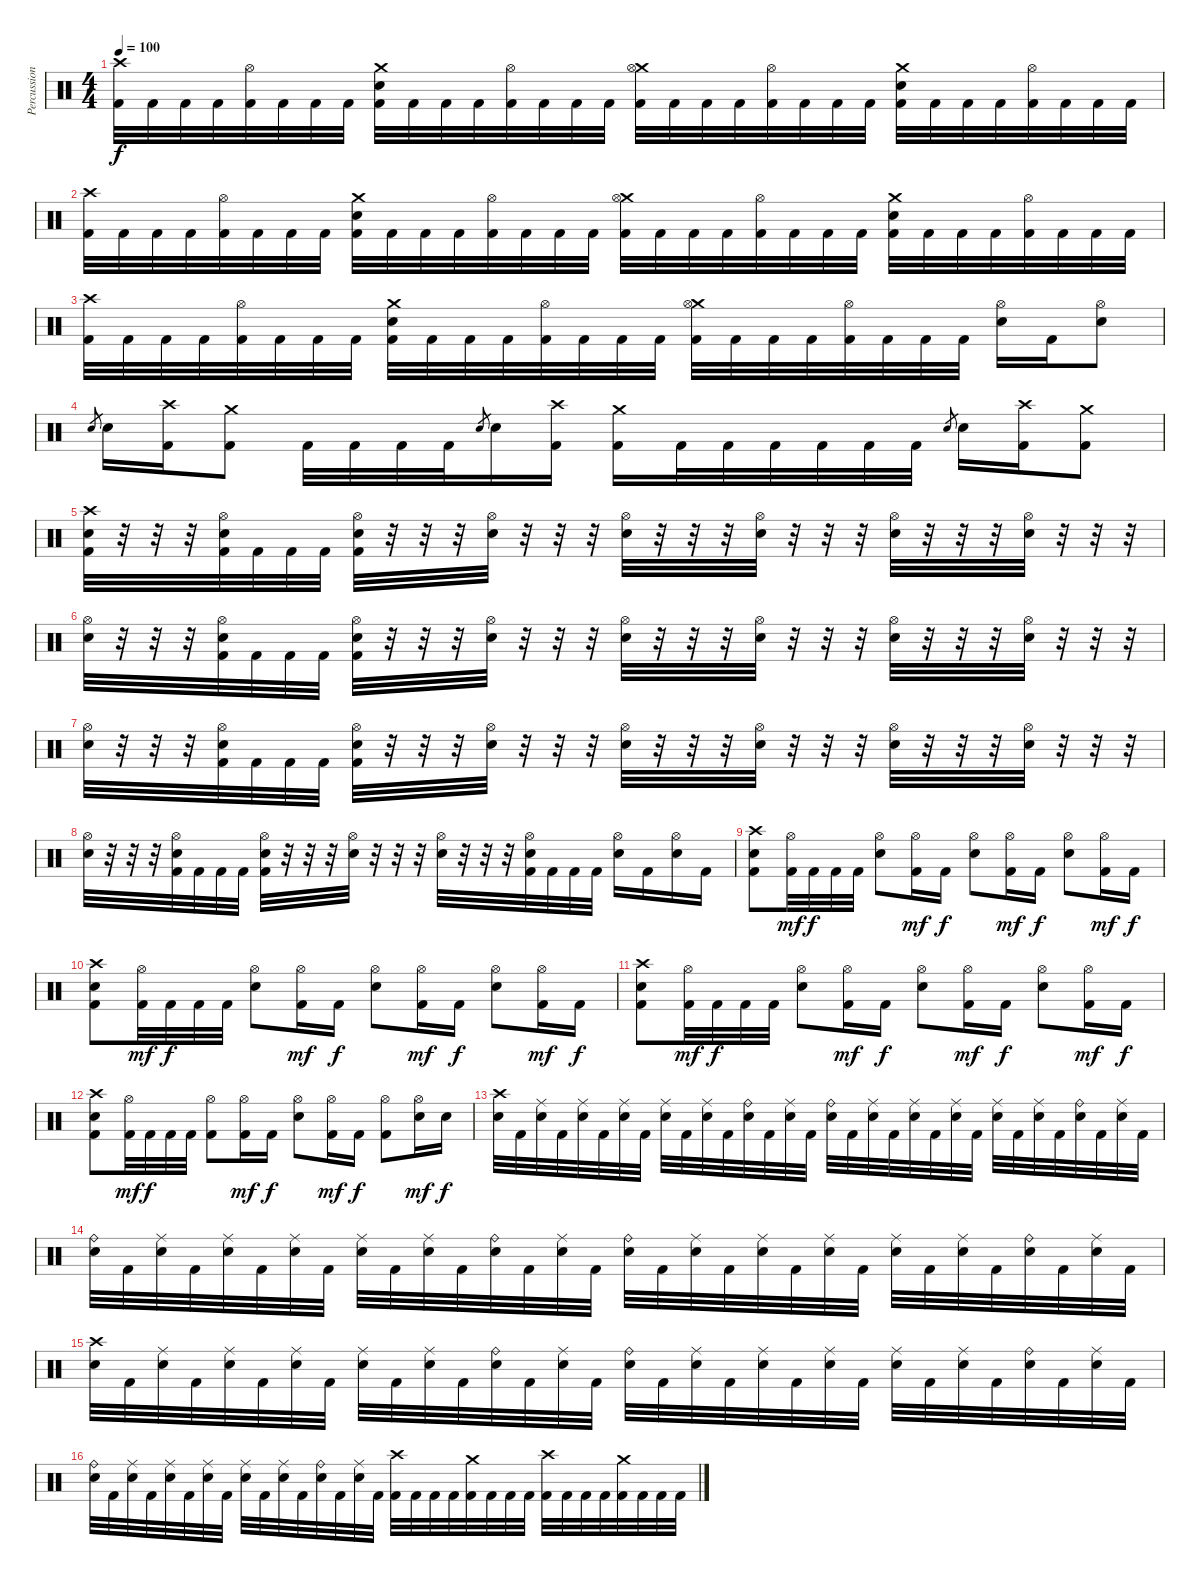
\track ("Percussion" "Percussion") {instrument percussion}
\staff {score}
\articulation defaults
\ts (4 4)
\tempo 100
\clef neutral
\ks c
("Crash high (hit)" "Kick (hit) 2").32{dy f} "Kick (hit) 2".32 "Kick (hit) 2".32 "Kick (hit) 2".32 ("Hi-Hat (open)" "Kick (hit) 2").32 "Kick (hit) 2".32 "Kick (hit) 2".32 "Kick (hit) 2".32 ("Crash medium (hit)" "Snare (hit) 2" "Kick (hit) 2").32 "Kick (hit) 2".32 "Kick (hit) 2".32 "Kick (hit) 2".32 ("Hi-Hat (open)" "Kick (hit) 2").32 "Kick (hit) 2".32 "Kick (hit) 2".32 "Kick (hit) 2".32 ("Crash medium (hit)" "Hi-Hat (open)" "Kick (hit) 2").32 "Kick (hit) 2".32 "Kick (hit) 2".32 "Kick (hit) 2".32 ("Hi-Hat (open)" "Kick (hit) 2").32 "Kick (hit) 2".32 "Kick (hit) 2".32 "Kick (hit) 2".32 ("Crash medium (hit)" "Snare (hit) 2" "Kick (hit) 2").32 "Kick (hit) 2".32 "Kick (hit) 2".32 "Kick (hit) 2".32 ("Hi-Hat (open)" "Kick (hit) 2").32 "Kick (hit) 2".32 "Kick (hit) 2".32 "Kick (hit) 2".32 |
("Crash high (hit)" "Kick (hit) 2").32 "Kick (hit) 2".32 "Kick (hit) 2".32 "Kick (hit) 2".32 ("Hi-Hat (open)" "Kick (hit) 2").32 "Kick (hit) 2".32 "Kick (hit) 2".32 "Kick (hit) 2".32 ("Crash medium (hit)" "Snare (hit) 2" "Kick (hit) 2").32 "Kick (hit) 2".32 "Kick (hit) 2".32 "Kick (hit) 2".32 ("Hi-Hat (open)" "Kick (hit) 2").32 "Kick (hit) 2".32 "Kick (hit) 2".32 "Kick (hit) 2".32 ("Crash medium (hit)" "Hi-Hat (open)" "Kick (hit) 2").32 "Kick (hit) 2".32 "Kick (hit) 2".32 "Kick (hit) 2".32 ("Hi-Hat (open)" "Kick (hit) 2").32 "Kick (hit) 2".32 "Kick (hit) 2".32 "Kick (hit) 2".32 ("Crash medium (hit)" "Snare (hit) 2" "Kick (hit) 2").32 "Kick (hit) 2".32 "Kick (hit) 2".32 "Kick (hit) 2".32 ("Hi-Hat (open)" "Kick (hit) 2").32 "Kick (hit) 2".32 "Kick (hit) 2".32 "Kick (hit) 2".32 |
("Crash high (hit)" "Kick (hit) 2").32 "Kick (hit) 2".32 "Kick (hit) 2".32 "Kick (hit) 2".32 ("Hi-Hat (open)" "Kick (hit) 2").32 "Kick (hit) 2".32 "Kick (hit) 2".32 "Kick (hit) 2".32 ("Crash medium (hit)" "Snare (hit) 2" "Kick (hit) 2").32 "Kick (hit) 2".32 "Kick (hit) 2".32 "Kick (hit) 2".32 ("Hi-Hat (open)" "Kick (hit) 2").32 "Kick (hit) 2".32 "Kick (hit) 2".32 "Kick (hit) 2".32 ("Crash medium (hit)" "Hi-Hat (open)" "Kick (hit) 2").32 "Kick (hit) 2".32 "Kick (hit) 2".32 "Kick (hit) 2".32 ("Hi-Hat (open)" "Kick (hit) 2").32 "Kick (hit) 2".32 "Kick (hit) 2".32 "Kick (hit) 2".32 ("Hi-Hat (open)" "Snare (hit) 2").16 "Kick (hit) 2".16 ("Hi-Hat (open)" "Snare (hit) 2").8 |
"Snare (hit) 2".8{gr} "Snare (hit) 2".16 ("Crash high (hit)" "Kick (hit) 2").16 ("Crash medium (hit)" "Kick (hit) 2").8 "Kick (hit) 2".32 "Kick (hit) 2".32 "Kick (hit) 2".32 "Kick (hit) 2".32 "Snare (hit) 2".8{gr} "Snare (hit) 2".16 ("Crash high (hit)" "Kick (hit) 2").16 ("Crash medium (hit)" "Kick (hit) 2").16 "Kick (hit) 2".32 "Kick (hit) 2".32 "Kick (hit) 2".32 "Kick (hit) 2".32 "Kick (hit) 2".32 "Kick (hit) 2".32 "Snare (hit) 2".8{gr} "Snare (hit) 2".16 ("Crash high (hit)" "Kick (hit) 2").16 ("Crash medium (hit)" "Kick (hit) 2").8 |
("Crash high (hit)" "Snare (hit) 2" "Kick (hit) 2").32 r.32 r.32 r.32 ("Hi-Hat (open)" "Snare (hit) 2" "Kick (hit) 2").32 "Kick (hit) 2".32 "Kick (hit) 2".32 "Kick (hit) 2".32 ("Hi-Hat (open)" "Snare (hit) 2" "Kick (hit) 2").32 r.32 r.32 r.32 ("Hi-Hat (open)" "Snare (hit) 2").32 r.32 r.32 r.32 ("Hi-Hat (open)" "Snare (hit) 2").32 r.32 r.32 r.32 ("Hi-Hat (open)" "Snare (hit) 2").32 r.32 r.32 r.32 ("Hi-Hat (open)" "Snare (hit) 2").32 r.32 r.32 r.32 ("Hi-Hat (open)" "Snare (hit) 2").32 r.32 r.32 r.32 |
("Hi-Hat (open)" "Snare (hit) 2").32 r.32 r.32 r.32 ("Hi-Hat (open)" "Snare (hit) 2" "Kick (hit) 2").32 "Kick (hit) 2".32 "Kick (hit) 2".32 "Kick (hit) 2".32 ("Hi-Hat (open)" "Snare (hit) 2" "Kick (hit) 2").32 r.32 r.32 r.32 ("Hi-Hat (open)" "Snare (hit) 2").32 r.32 r.32 r.32 ("Hi-Hat (open)" "Snare (hit) 2").32 r.32 r.32 r.32 ("Hi-Hat (open)" "Snare (hit) 2").32 r.32 r.32 r.32 ("Hi-Hat (open)" "Snare (hit) 2").32 r.32 r.32 r.32 ("Hi-Hat (open)" "Snare (hit) 2").32 r.32 r.32 r.32 |
("Hi-Hat (open)" "Snare (hit) 2").32 r.32 r.32 r.32 ("Hi-Hat (open)" "Snare (hit) 2" "Kick (hit) 2").32 "Kick (hit) 2".32 "Kick (hit) 2".32 "Kick (hit) 2".32 ("Hi-Hat (open)" "Snare (hit) 2" "Kick (hit) 2").32 r.32 r.32 r.32 ("Hi-Hat (open)" "Snare (hit) 2").32 r.32 r.32 r.32 ("Hi-Hat (open)" "Snare (hit) 2").32 r.32 r.32 r.32 ("Hi-Hat (open)" "Snare (hit) 2").32 r.32 r.32 r.32 ("Hi-Hat (open)" "Snare (hit) 2").32 r.32 r.32 r.32 ("Hi-Hat (open)" "Snare (hit) 2").32 r.32 r.32 r.32 |
("Hi-Hat (open)" "Snare (hit) 2").32 r.32 r.32 r.32 ("Hi-Hat (open)" "Snare (hit) 2" "Kick (hit) 2").32 "Kick (hit) 2".32 "Kick (hit) 2".32 "Kick (hit) 2".32 ("Hi-Hat (open)" "Snare (hit) 2" "Kick (hit) 2").32 r.32 r.32 r.32 ("Hi-Hat (open)" "Snare (hit) 2").32 r.32 r.32 r.32 ("Hi-Hat (open)" "Snare (hit) 2").32 r.32 r.32 r.32 ("Hi-Hat (open)" "Snare (hit) 2" "Kick (hit) 2").32 "Kick (hit) 2".32 "Kick (hit) 2".32 "Kick (hit) 2".32 ("Hi-Hat (open)" "Snare (hit) 2").16 "Kick (hit) 2".16 ("Hi-Hat (open)" "Snare (hit) 2").16 "Kick (hit) 2".16 |
("Crash high (hit)" "Snare (hit) 2" "Kick (hit) 2").8 ("Hi-Hat (open)" "Kick (hit) 2").32{dy mf} "Kick (hit) 2".32{dy f} "Kick (hit) 2".32 "Kick (hit) 2".32 ("Hi-Hat (open)" "Snare (hit) 2").8 ("Hi-Hat (open)" "Kick (hit) 2").16{dy mf} "Kick (hit) 2".16{dy f} ("Hi-Hat (open)" "Snare (hit) 2").8 ("Hi-Hat (open)" "Kick (hit) 2").16{dy mf} "Kick (hit) 2".16{dy f} ("Hi-Hat (open)" "Snare (hit) 2").8 ("Hi-Hat (open)" "Kick (hit) 2").16{dy mf} "Kick (hit) 2".16{dy f} |
("Crash high (hit)" "Snare (hit) 2" "Kick (hit) 2").8 ("Hi-Hat (open)" "Kick (hit) 2").32{dy mf} "Kick (hit) 2".32{dy f} "Kick (hit) 2".32 "Kick (hit) 2".32 ("Hi-Hat (open)" "Snare (hit) 2").8 ("Hi-Hat (open)" "Kick (hit) 2").16{dy mf} "Kick (hit) 2".16{dy f} ("Hi-Hat (open)" "Snare (hit) 2").8 ("Hi-Hat (open)" "Kick (hit) 2").16{dy mf} "Kick (hit) 2".16{dy f} ("Hi-Hat (open)" "Snare (hit) 2").8 ("Hi-Hat (open)" "Kick (hit) 2").16{dy mf} "Kick (hit) 2".16{dy f} |
("Crash high (hit)" "Snare (hit) 2" "Kick (hit) 2").8 ("Hi-Hat (open)" "Kick (hit) 2").32{dy mf} "Kick (hit) 2".32{dy f} "Kick (hit) 2".32 "Kick (hit) 2".32 ("Hi-Hat (open)" "Snare (hit) 2").8 ("Hi-Hat (open)" "Kick (hit) 2").16{dy mf} "Kick (hit) 2".16{dy f} ("Hi-Hat (open)" "Snare (hit) 2").8 ("Hi-Hat (open)" "Kick (hit) 2").16{dy mf} "Kick (hit) 2".16{dy f} ("Hi-Hat (open)" "Snare (hit) 2").8 ("Hi-Hat (open)" "Kick (hit) 2").16{dy mf} "Kick (hit) 2".16{dy f} |
("Crash high (hit)" "Snare (hit) 2" "Kick (hit) 2").8 ("Hi-Hat (open)" "Kick (hit) 2").32{dy mf} "Kick (hit) 2".32{dy f} "Kick (hit) 2".32 "Kick (hit) 2".32 ("Hi-Hat (open)" "Kick (hit) 2").8 ("Hi-Hat (open)" "Kick (hit) 2").16{dy mf} "Kick (hit) 2".16{dy f} ("Hi-Hat (open)" "Snare (hit) 2").8 ("Hi-Hat (open)" "Kick (hit) 2").16{dy mf} "Kick (hit) 2".16{dy f} ("Hi-Hat (open)" "Kick (hit) 2").8 ("Hi-Hat (open)" "Snare (hit) 2").16{dy mf} "Snare (hit) 2".16{dy f} |
("Crash high (hit)" "Snare (hit) 2").32 "Kick (hit) 2".32 ("Ride (middle)" "Snare (hit) 2").32 "Kick (hit) 2".32 ("Ride (middle)" "Snare (hit) 2").32 "Kick (hit) 2".32 ("Ride (middle)" "Snare (hit) 2").32 "Kick (hit) 2".32 ("Ride (middle)" "Snare (hit) 2").32 "Kick (hit) 2".32 ("Ride (middle)" "Snare (hit) 2").32 "Kick (hit) 2".32 ("Ride (bell)" "Snare (hit) 2").32 "Kick (hit) 2".32 ("Ride (middle)" "Snare (hit) 2").32 "Kick (hit) 2".32 ("Ride (bell)" "Snare (hit) 2").32 "Kick (hit) 2".32 ("Ride (middle)" "Snare (hit) 2").32 "Kick (hit) 2".32 ("Ride (middle)" "Snare (hit) 2").32 "Kick (hit) 2".32 ("Ride (middle)" "Snare (hit) 2").32 "Kick (hit) 2".32 ("Ride (middle)" "Snare (hit) 2").32 "Kick (hit) 2".32 ("Ride (middle)" "Snare (hit) 2").32 "Kick (hit) 2".32 ("Ride (bell)" "Snare (hit) 2").32 "Kick (hit) 2".32 ("Ride (middle)" "Snare (hit) 2").32 "Kick (hit) 2".32 |
("Ride (bell)" "Snare (hit) 2").32 "Kick (hit) 2".32 ("Ride (middle)" "Snare (hit) 2").32 "Kick (hit) 2".32 ("Ride (middle)" "Snare (hit) 2").32 "Kick (hit) 2".32 ("Ride (middle)" "Snare (hit) 2").32 "Kick (hit) 2".32 ("Ride (middle)" "Snare (hit) 2").32 "Kick (hit) 2".32 ("Ride (middle)" "Snare (hit) 2").32 "Kick (hit) 2".32 ("Ride (bell)" "Snare (hit) 2").32 "Kick (hit) 2".32 ("Ride (middle)" "Snare (hit) 2").32 "Kick (hit) 2".32 ("Ride (bell)" "Snare (hit) 2").32 "Kick (hit) 2".32 ("Ride (middle)" "Snare (hit) 2").32 "Kick (hit) 2".32 ("Ride (middle)" "Snare (hit) 2").32 "Kick (hit) 2".32 ("Ride (middle)" "Snare (hit) 2").32 "Kick (hit) 2".32 ("Ride (middle)" "Snare (hit) 2").32 "Kick (hit) 2".32 ("Ride (middle)" "Snare (hit) 2").32 "Kick (hit) 2".32 ("Ride (bell)" "Snare (hit) 2").32 "Kick (hit) 2".32 ("Ride (middle)" "Snare (hit) 2").32 "Kick (hit) 2".32 |
("Crash high (hit)" "Snare (hit) 2").32 "Kick (hit) 2".32 ("Ride (middle)" "Snare (hit) 2").32 "Kick (hit) 2".32 ("Ride (middle)" "Snare (hit) 2").32 "Kick (hit) 2".32 ("Ride (middle)" "Snare (hit) 2").32 "Kick (hit) 2".32 ("Ride (middle)" "Snare (hit) 2").32 "Kick (hit) 2".32 ("Ride (middle)" "Snare (hit) 2").32 "Kick (hit) 2".32 ("Ride (bell)" "Snare (hit) 2").32 "Kick (hit) 2".32 ("Ride (middle)" "Snare (hit) 2").32 "Kick (hit) 2".32 ("Ride (bell)" "Snare (hit) 2").32 "Kick (hit) 2".32 ("Ride (middle)" "Snare (hit) 2").32 "Kick (hit) 2".32 ("Ride (middle)" "Snare (hit) 2").32 "Kick (hit) 2".32 ("Ride (middle)" "Snare (hit) 2").32 "Kick (hit) 2".32 ("Ride (middle)" "Snare (hit) 2").32 "Kick (hit) 2".32 ("Ride (middle)" "Snare (hit) 2").32 "Kick (hit) 2".32 ("Ride (bell)" "Snare (hit) 2").32 "Kick (hit) 2".32 ("Ride (middle)" "Snare (hit) 2").32 "Kick (hit) 2".32 |
("Ride (bell)" "Snare (hit) 2").32 "Kick (hit) 2".32 ("Ride (middle)" "Snare (hit) 2").32 "Kick (hit) 2".32 ("Ride (middle)" "Snare (hit) 2").32 "Kick (hit) 2".32 ("Ride (middle)" "Snare (hit) 2").32 "Kick (hit) 2".32 ("Ride (middle)" "Snare (hit) 2").32 "Kick (hit) 2".32 ("Ride (middle)" "Snare (hit) 2").32 "Kick (hit) 2".32 ("Ride (bell)" "Snare (hit) 2").32 "Kick (hit) 2".32 ("Ride (middle)" "Snare (hit) 2").32 "Kick (hit) 2".32 ("Crash high (hit)" "Kick (hit) 2").32 "Kick (hit) 2".32 "Kick (hit) 2".32 "Kick (hit) 2".32 ("Crash medium (hit)" "Kick (hit) 2").32 "Kick (hit) 2".32 "Kick (hit) 2".32 "Kick (hit) 2".32 ("Crash high (hit)" "Kick (hit) 2").32 "Kick (hit) 2".32 "Kick (hit) 2".32 "Kick (hit) 2".32 ("Crash medium (hit)" "Kick (hit) 2").32 "Kick (hit) 2".32 "Kick (hit) 2".32 "Kick (hit) 2".32
